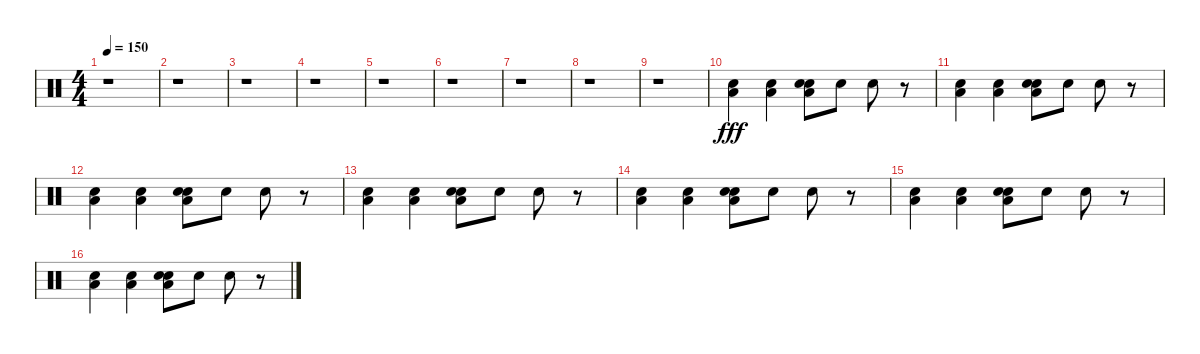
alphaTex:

\track "" {instrument percussion}
\staff {score}
\articulation defaults
\ts (4 4)
\tempo 150
\clef neutral
\ks c
r.1{dy f} |
r.1 |
r.1 |
r.1 |
r.1 |
r.1 |
r.1 |
r.1 |
r.1 |
("Low Floor Tom (hit)" "Snare (hit) 2").4{dy fff} ("Low Floor Tom (hit)" "Snare (hit) 2").4 ("Electric Snare (hit)" "Low Floor Tom (hit)" "Snare (hit) 2").8 "Electric Snare (hit)".8 "Electric Snare (hit)".8 r.8 |
("Low Floor Tom (hit)" "Snare (hit) 2").4 ("Low Floor Tom (hit)" "Snare (hit) 2").4 ("Electric Snare (hit)" "Low Floor Tom (hit)" "Snare (hit) 2").8 "Electric Snare (hit)".8 "Electric Snare (hit)".8 r.8 |
("Low Floor Tom (hit)" "Electric Snare (hit)").4 ("Low Floor Tom (hit)" "Electric Snare (hit)").4 ("Electric Snare (hit)" "Low Floor Tom (hit)" "Electric Snare (hit)").8 "Electric Snare (hit)".8 "Electric Snare (hit)".8 r.8 |
("Low Floor Tom (hit)" "Electric Snare (hit)").4 ("Low Floor Tom (hit)" "Electric Snare (hit)").4 ("Electric Snare (hit)" "Low Floor Tom (hit)" "Electric Snare (hit)").8 "Electric Snare (hit)".8 "Electric Snare (hit)".8 r.8 |
("Low Floor Tom (hit)" "Electric Snare (hit)").4 ("Low Floor Tom (hit)" "Electric Snare (hit)").4 ("Electric Snare (hit)" "Low Floor Tom (hit)" "Electric Snare (hit)").8 "Electric Snare (hit)".8 "Electric Snare (hit)".8 r.8 |
("Low Floor Tom (hit)" "Electric Snare (hit)").4 ("Low Floor Tom (hit)" "Electric Snare (hit)").4 ("Electric Snare (hit)" "Low Floor Tom (hit)" "Electric Snare (hit)").8 "Electric Snare (hit)".8 "Electric Snare (hit)".8 r.8 |
("Low Floor Tom (hit)" "Electric Snare (hit)").4 ("Low Floor Tom (hit)" "Electric Snare (hit)").4 ("Electric Snare (hit)" "Low Floor Tom (hit)" "Electric Snare (hit)").8 "Electric Snare (hit)".8 "Electric Snare (hit)".8 r.8
